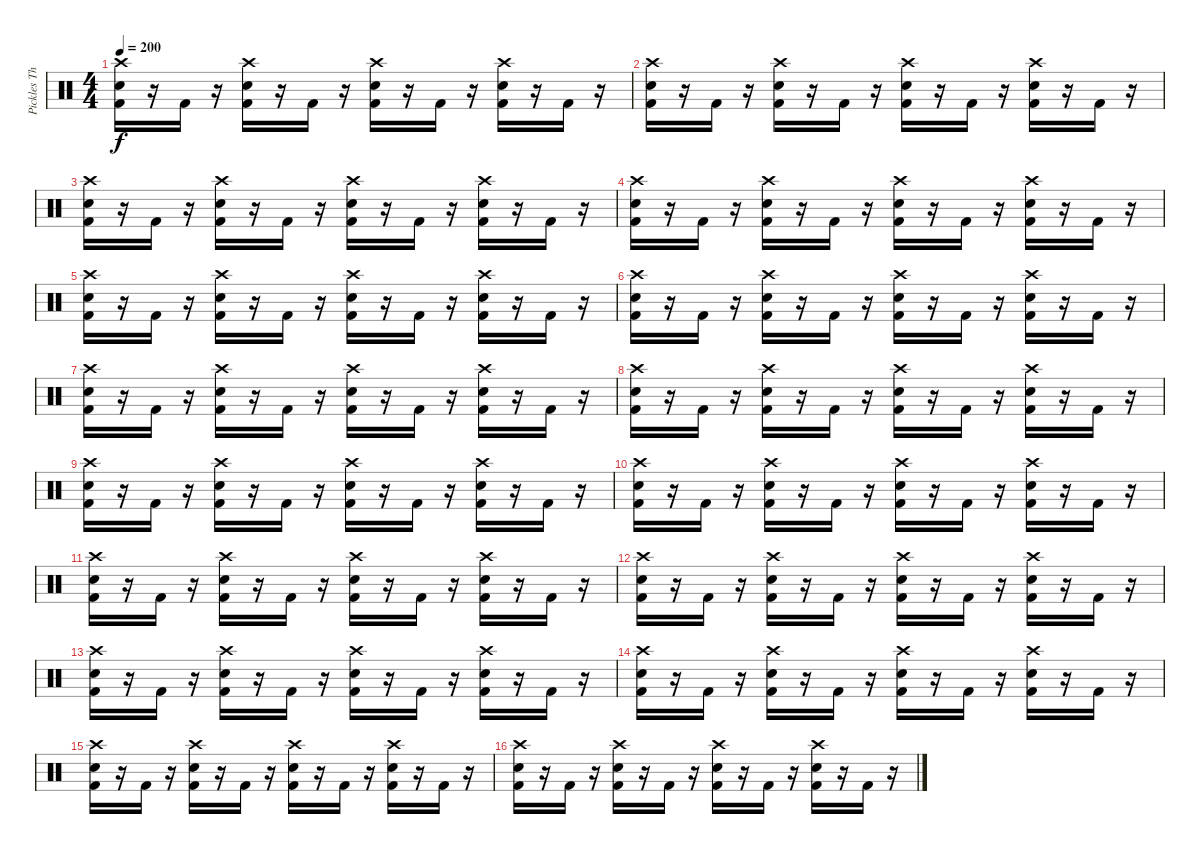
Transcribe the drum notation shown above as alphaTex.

\track ("Pickles The Drummer" "Pickles Th") {instrument percussion}
\staff {score}
\articulation defaults
\ts (4 4)
\tempo 200
\clef neutral
\ks c
("Crash high (hit)" "Electric Snare (hit)" "Kick (hit) 2").16{dy f} r.16 "Kick (hit) 2".16 r.16 ("Crash high (hit)" "Electric Snare (hit)" "Kick (hit) 2").16 r.16 "Kick (hit) 2".16 r.16 ("Crash high (hit)" "Electric Snare (hit)" "Kick (hit) 2").16 r.16 "Kick (hit) 2".16 r.16 ("Crash high (hit)" "Electric Snare (hit)" "Kick (hit) 2").16 r.16 "Kick (hit) 2".16 r.16 |
("Crash high (hit)" "Electric Snare (hit)" "Kick (hit) 2").16 r.16 "Kick (hit) 2".16 r.16 ("Crash high (hit)" "Electric Snare (hit)" "Kick (hit) 2").16 r.16 "Kick (hit) 2".16 r.16 ("Crash high (hit)" "Electric Snare (hit)" "Kick (hit) 2").16 r.16 "Kick (hit) 2".16 r.16 ("Crash high (hit)" "Electric Snare (hit)" "Kick (hit) 2").16 r.16 "Kick (hit) 2".16 r.16 |
("Crash high (hit)" "Electric Snare (hit)" "Kick (hit) 2").16 r.16 "Kick (hit) 2".16 r.16 ("Crash high (hit)" "Electric Snare (hit)" "Kick (hit) 2").16 r.16 "Kick (hit) 2".16 r.16 ("Crash high (hit)" "Electric Snare (hit)" "Kick (hit) 2").16 r.16 "Kick (hit) 2".16 r.16 ("Crash high (hit)" "Electric Snare (hit)" "Kick (hit) 2").16 r.16 "Kick (hit) 2".16 r.16 |
("Crash high (hit)" "Electric Snare (hit)" "Kick (hit) 2").16 r.16 "Kick (hit) 2".16 r.16 ("Crash high (hit)" "Electric Snare (hit)" "Kick (hit) 2").16 r.16 "Kick (hit) 2".16 r.16 ("Crash high (hit)" "Electric Snare (hit)" "Kick (hit) 2").16 r.16 "Kick (hit) 2".16 r.16 ("Crash high (hit)" "Electric Snare (hit)" "Kick (hit) 2").16 r.16 "Kick (hit) 2".16 r.16 |
("Crash high (hit)" "Electric Snare (hit)" "Kick (hit) 2").16 r.16 "Kick (hit) 2".16 r.16 ("Crash high (hit)" "Electric Snare (hit)" "Kick (hit) 2").16 r.16 "Kick (hit) 2".16 r.16 ("Crash high (hit)" "Electric Snare (hit)" "Kick (hit) 2").16 r.16 "Kick (hit) 2".16 r.16 ("Crash high (hit)" "Electric Snare (hit)" "Kick (hit) 2").16 r.16 "Kick (hit) 2".16 r.16 |
("Crash high (hit)" "Electric Snare (hit)" "Kick (hit) 2").16 r.16 "Kick (hit) 2".16 r.16 ("Crash high (hit)" "Electric Snare (hit)" "Kick (hit) 2").16 r.16 "Kick (hit) 2".16 r.16 ("Crash high (hit)" "Electric Snare (hit)" "Kick (hit) 2").16 r.16 "Kick (hit) 2".16 r.16 ("Crash high (hit)" "Electric Snare (hit)" "Kick (hit) 2").16 r.16 "Kick (hit) 2".16 r.16 |
("Crash high (hit)" "Electric Snare (hit)" "Kick (hit) 2").16 r.16 "Kick (hit) 2".16 r.16 ("Crash high (hit)" "Electric Snare (hit)" "Kick (hit) 2").16 r.16 "Kick (hit) 2".16 r.16 ("Crash high (hit)" "Electric Snare (hit)" "Kick (hit) 2").16 r.16 "Kick (hit) 2".16 r.16 ("Crash high (hit)" "Electric Snare (hit)" "Kick (hit) 2").16 r.16 "Kick (hit) 2".16 r.16 |
("Crash high (hit)" "Electric Snare (hit)" "Kick (hit) 2").16 r.16 "Kick (hit) 2".16 r.16 ("Crash high (hit)" "Electric Snare (hit)" "Kick (hit) 2").16 r.16 "Kick (hit) 2".16 r.16 ("Crash high (hit)" "Electric Snare (hit)" "Kick (hit) 2").16 r.16 "Kick (hit) 2".16 r.16 ("Crash high (hit)" "Electric Snare (hit)" "Kick (hit) 2").16 r.16 "Kick (hit) 2".16 r.16 |
("Crash high (hit)" "Electric Snare (hit)" "Kick (hit) 2").16 r.16 "Kick (hit) 2".16 r.16 ("Crash high (hit)" "Electric Snare (hit)" "Kick (hit) 2").16 r.16 "Kick (hit) 2".16 r.16 ("Crash high (hit)" "Electric Snare (hit)" "Kick (hit) 2").16 r.16 "Kick (hit) 2".16 r.16 ("Crash high (hit)" "Electric Snare (hit)" "Kick (hit) 2").16 r.16 "Kick (hit) 2".16 r.16 |
("Crash high (hit)" "Electric Snare (hit)" "Kick (hit) 2").16 r.16 "Kick (hit) 2".16 r.16 ("Crash high (hit)" "Electric Snare (hit)" "Kick (hit) 2").16 r.16 "Kick (hit) 2".16 r.16 ("Crash high (hit)" "Electric Snare (hit)" "Kick (hit) 2").16 r.16 "Kick (hit) 2".16 r.16 ("Crash high (hit)" "Electric Snare (hit)" "Kick (hit) 2").16 r.16 "Kick (hit) 2".16 r.16 |
("Crash high (hit)" "Electric Snare (hit)" "Kick (hit) 2").16 r.16 "Kick (hit) 2".16 r.16 ("Crash high (hit)" "Electric Snare (hit)" "Kick (hit) 2").16 r.16 "Kick (hit) 2".16 r.16 ("Crash high (hit)" "Electric Snare (hit)" "Kick (hit) 2").16 r.16 "Kick (hit) 2".16 r.16 ("Crash high (hit)" "Electric Snare (hit)" "Kick (hit) 2").16 r.16 "Kick (hit) 2".16 r.16 |
("Crash high (hit)" "Electric Snare (hit)" "Kick (hit) 2").16 r.16 "Kick (hit) 2".16 r.16 ("Crash high (hit)" "Electric Snare (hit)" "Kick (hit) 2").16 r.16 "Kick (hit) 2".16 r.16 ("Crash high (hit)" "Electric Snare (hit)" "Kick (hit) 2").16 r.16 "Kick (hit) 2".16 r.16 ("Crash high (hit)" "Electric Snare (hit)" "Kick (hit) 2").16 r.16 "Kick (hit) 2".16 r.16 |
("Crash high (hit)" "Electric Snare (hit)" "Kick (hit) 2").16 r.16 "Kick (hit) 2".16 r.16 ("Crash high (hit)" "Electric Snare (hit)" "Kick (hit) 2").16 r.16 "Kick (hit) 2".16 r.16 ("Crash high (hit)" "Electric Snare (hit)" "Kick (hit) 2").16 r.16 "Kick (hit) 2".16 r.16 ("Crash high (hit)" "Electric Snare (hit)" "Kick (hit) 2").16 r.16 "Kick (hit) 2".16 r.16 |
("Crash high (hit)" "Electric Snare (hit)" "Kick (hit) 2").16 r.16 "Kick (hit) 2".16 r.16 ("Crash high (hit)" "Electric Snare (hit)" "Kick (hit) 2").16 r.16 "Kick (hit) 2".16 r.16 ("Crash high (hit)" "Electric Snare (hit)" "Kick (hit) 2").16 r.16 "Kick (hit) 2".16 r.16 ("Crash high (hit)" "Electric Snare (hit)" "Kick (hit) 2").16 r.16 "Kick (hit) 2".16 r.16 |
("Crash high (hit)" "Electric Snare (hit)" "Kick (hit) 2").16 r.16 "Kick (hit) 2".16 r.16 ("Crash high (hit)" "Electric Snare (hit)" "Kick (hit) 2").16 r.16 "Kick (hit) 2".16 r.16 ("Crash high (hit)" "Electric Snare (hit)" "Kick (hit) 2").16 r.16 "Kick (hit) 2".16 r.16 ("Crash high (hit)" "Electric Snare (hit)" "Kick (hit) 2").16 r.16 "Kick (hit) 2".16 r.16 |
("Crash high (hit)" "Electric Snare (hit)" "Kick (hit) 2").16 r.16 "Kick (hit) 2".16 r.16 ("Crash high (hit)" "Electric Snare (hit)" "Kick (hit) 2").16 r.16 "Kick (hit) 2".16 r.16 ("Crash high (hit)" "Electric Snare (hit)" "Kick (hit) 2").16 r.16 "Kick (hit) 2".16 r.16 ("Crash high (hit)" "Electric Snare (hit)" "Kick (hit) 2").16 r.16 "Kick (hit) 2".16 r.16
